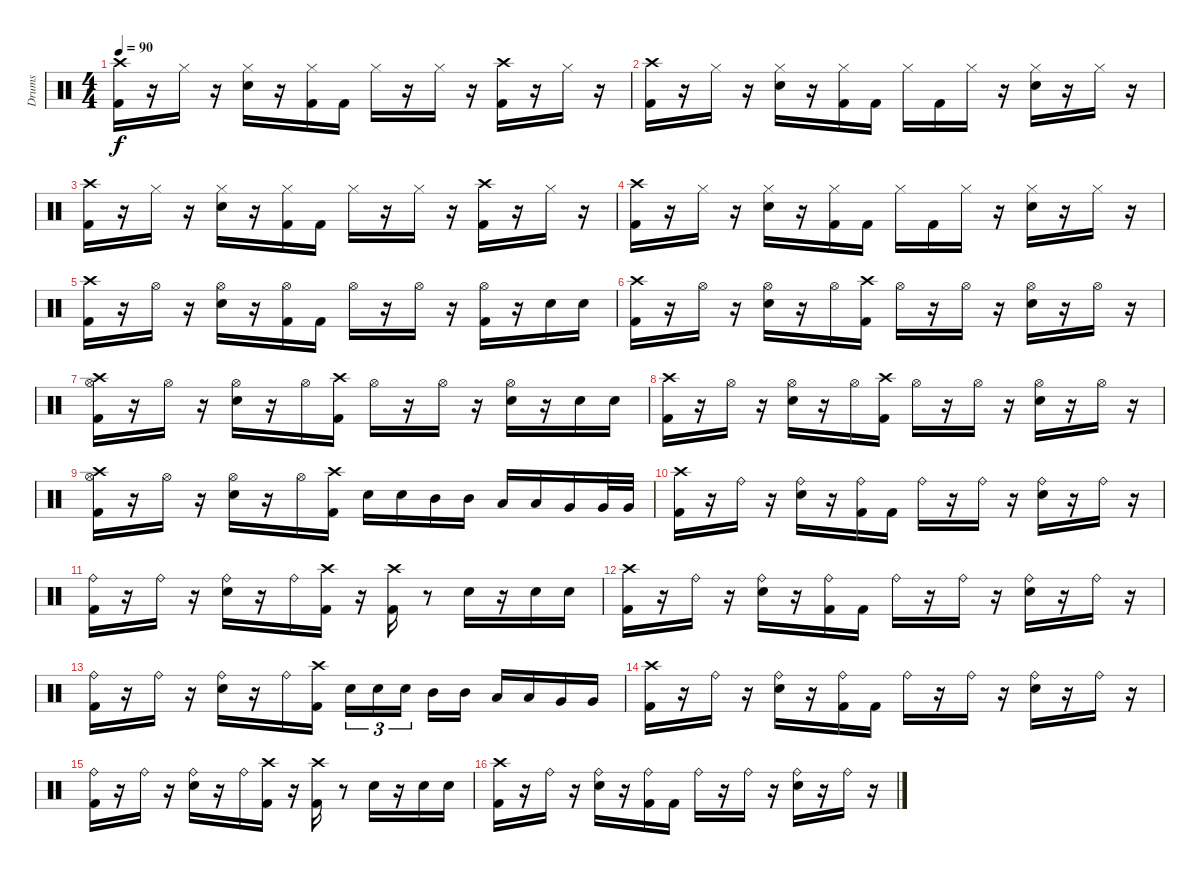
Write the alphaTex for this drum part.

\track ("Drums" "Drums") {instrument percussion}
\staff {score}
\articulation defaults
\ts (4 4)
\tempo 90
\clef neutral
\ks c
("Kick (hit) 2" "Crash high (hit)").16{dy f} r.16 "Hi-Hat (closed)".16 r.16 ("Hi-Hat (closed)" "Electric Snare (hit)").16 r.16 ("Hi-Hat (closed)" "Kick (hit) 2").16 "Kick (hit) 2".16 "Hi-Hat (closed)".16 r.16 "Hi-Hat (closed)".16 r.16 ("Crash high (hit)" "Kick (hit) 2").16 r.16 "Hi-Hat (closed)".16 r.16 |
("Crash high (hit)" "Kick (hit) 2").16 r.16 "Hi-Hat (closed)".16 r.16 ("Hi-Hat (closed)" "Electric Snare (hit)").16 r.16 ("Hi-Hat (closed)" "Kick (hit) 2").16 "Kick (hit) 2".16 "Hi-Hat (closed)".16 "Kick (hit) 2".16 "Hi-Hat (closed)".16 r.16 ("Hi-Hat (closed)" "Electric Snare (hit)").16 r.16 "Hi-Hat (closed)".16 r.16 |
("Kick (hit) 2" "Crash high (hit)").16 r.16 "Hi-Hat (closed)".16 r.16 ("Hi-Hat (closed)" "Electric Snare (hit)").16 r.16 ("Hi-Hat (closed)" "Kick (hit) 2").16 "Kick (hit) 2".16 "Hi-Hat (closed)".16 r.16 "Hi-Hat (closed)".16 r.16 ("Crash high (hit)" "Kick (hit) 2").16 r.16 "Hi-Hat (closed)".16 r.16 |
("Kick (hit) 2" "Crash high (hit)").16 r.16 "Hi-Hat (closed)".16 r.16 ("Electric Snare (hit)" "Hi-Hat (closed)").16 r.16 ("Kick (hit) 2" "Hi-Hat (closed)").16 "Kick (hit) 2".16 "Hi-Hat (closed)".16 "Kick (hit) 2".16 "Hi-Hat (closed)".16 r.16 ("Electric Snare (hit)" "Hi-Hat (closed)").16 r.16 "Hi-Hat (closed)".16 r.16 |
("Kick (hit) 2" "Crash high (hit)").16 r.16 "Hi-Hat (open)".16 r.16 ("Electric Snare (hit)" "Hi-Hat (open)").16 r.16 ("Kick (hit) 2" "Hi-Hat (open)").16 "Kick (hit) 2".16 "Hi-Hat (open)".16 r.16 "Hi-Hat (open)".16 r.16 ("Kick (hit) 2" "Hi-Hat (open)").16 r.16 "Electric Snare (hit)".16 "Electric Snare (hit)".16 |
("Kick (hit) 2" "Crash high (hit)").16 r.16 "Hi-Hat (open)".16 r.16 ("Electric Snare (hit)" "Hi-Hat (open)").16 r.16 "Hi-Hat (open)".16 ("Kick (hit) 2" "Crash high (hit)").16 "Hi-Hat (open)".16 r.16 "Hi-Hat (open)".16 r.16 ("Hi-Hat (open)" "Electric Snare (hit)").16 r.16 "Hi-Hat (open)".16 r.16 |
("Kick (hit) 2" "Hi-Hat (open)" "Crash high (hit)").16 r.16 "Hi-Hat (open)".16 r.16 ("Hi-Hat (open)" "Electric Snare (hit)").16 r.16 "Hi-Hat (open)".16 ("Kick (hit) 2" "Crash high (hit)").16 "Hi-Hat (open)".16 r.16 "Hi-Hat (open)".16 r.16 ("Electric Snare (hit)" "Hi-Hat (open)").16 r.16 "Electric Snare (hit)".16 "Electric Snare (hit)".16 |
("Crash high (hit)" "Kick (hit) 2").16 r.16 "Hi-Hat (open)".16 r.16 ("Hi-Hat (open)" "Electric Snare (hit)").16 r.16 "Hi-Hat (open)".16 ("Kick (hit) 2" "Crash high (hit)").16 "Hi-Hat (open)".16 r.16 "Hi-Hat (open)".16 r.16 ("Electric Snare (hit)" "Hi-Hat (open)").16 r.16 "Hi-Hat (open)".16 r.16 |
("Hi-Hat (open)" "Kick (hit) 2" "Crash high (hit)").16 r.16 "Hi-Hat (open)".16 r.16 ("Electric Snare (hit)" "Hi-Hat (open)").16 r.16 "Hi-Hat (open)".16 ("Kick (hit) 2" "Crash high (hit)").16 "Electric Snare (hit)".16 "Electric Snare (hit)".16 "Mid Tom (hit)".16 "Mid Tom (hit)".16 "Low Tom (hit)".16 "Low Tom (hit)".16 "Very Low Tom (hit)".16 "Very Low Tom (hit)".32 "Very Low Tom (hit)".32 |
("Crash high (hit)" "Kick (hit) 2").16 r.16 "Ride (bell)".16 r.16 ("Electric Snare (hit)" "Ride (bell)").16 r.16 ("Ride (bell)" "Kick (hit) 2").16 "Kick (hit) 2".16 "Ride (bell)".16 r.16 "Ride (bell)".16 r.16 ("Electric Snare (hit)" "Ride (bell)").16 r.16 "Ride (bell)".16 r.16 |
("Kick (hit) 2" "Ride (bell)").16 r.16 "Ride (bell)".16 r.16 ("Electric Snare (hit)" "Ride (bell)").16 r.16 "Ride (bell)".16 ("Kick (hit) 2" "Crash high (hit)").16 r.16 ("Crash high (hit)" "Kick (hit) 2").16 r.8 "Electric Snare (hit)".16 r.16 "Electric Snare (hit)".16 "Electric Snare (hit)".16 |
("Kick (hit) 2" "Crash high (hit)").16 r.16 "Ride (bell)".16 r.16 ("Ride (bell)" "Electric Snare (hit)").16 r.16 ("Kick (hit) 2" "Ride (bell)").16 "Kick (hit) 2".16 "Ride (bell)".16 r.16 "Ride (bell)".16 r.16 ("Ride (bell)" "Electric Snare (hit)").16 r.16 "Ride (bell)".16 r.16 |
("Ride (bell)" "Kick (hit) 2").16 r.16 "Ride (bell)".16 r.16 ("Ride (bell)" "Electric Snare (hit)").16 r.16 "Ride (bell)".16 ("Crash high (hit)" "Kick (hit) 2").16 "Electric Snare (hit)".16{tu (3 2)} "Electric Snare (hit)".16{tu (3 2)} "Electric Snare (hit)".16{tu (3 2) beam splitsecondary} "Mid Tom (hit)".16 "Mid Tom (hit)".16 "Low Tom (hit)".16 "Low Tom (hit)".16 "Very Low Tom (hit)".16 "Very Low Tom (hit)".16 |
("Kick (hit) 2" "Crash high (hit)").16 r.16 "Ride (bell)".16 r.16 ("Ride (bell)" "Electric Snare (hit)").16 r.16 ("Kick (hit) 2" "Ride (bell)").16 "Kick (hit) 2".16 "Ride (bell)".16 r.16 "Ride (bell)".16 r.16 ("Ride (bell)" "Electric Snare (hit)").16 r.16 "Ride (bell)".16 r.16 |
("Ride (bell)" "Kick (hit) 2").16 r.16 "Ride (bell)".16 r.16 ("Ride (bell)" "Electric Snare (hit)").16 r.16 "Ride (bell)".16 ("Crash high (hit)" "Kick (hit) 2").16 r.16 ("Kick (hit) 2" "Crash high (hit)").16 r.8 "Electric Snare (hit)".16 r.16 "Electric Snare (hit)".16 "Electric Snare (hit)".16 |
("Crash high (hit)" "Kick (hit) 2").16 r.16 "Ride (bell)".16 r.16 ("Electric Snare (hit)" "Ride (bell)").16 r.16 ("Ride (bell)" "Kick (hit) 2").16 "Kick (hit) 2".16 "Ride (bell)".16 r.16 "Ride (bell)".16 r.16 ("Electric Snare (hit)" "Ride (bell)").16 r.16 "Ride (bell)".16 r.16
